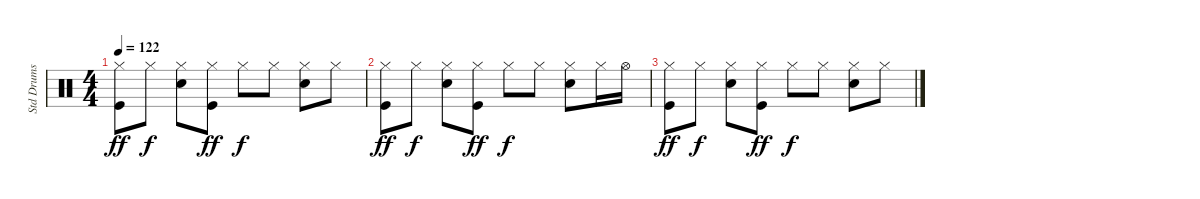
\track ("Std Drums" "Std Drums") {instrument percussion}
\staff {score}
\articulation defaults
\ts (4 4)
\tempo 122
\clef neutral
\ks c
("Hi-Hat (closed)" "Kick (hit)").8{dy ff volume 4} "Hi-Hat (closed)".8{dy f volume 4} ("Hi-Hat (closed)" "Snare (hit) 2").8{volume 4} ("Hi-Hat (closed)" "Kick (hit)").8{dy ff volume 4} "Hi-Hat (closed)".8{dy f volume 4} "Hi-Hat (closed)".8{volume 4} ("Hi-Hat (closed)" "Snare (hit) 2").8{volume 3} "Hi-Hat (closed)".8{volume 3} |
("Hi-Hat (closed)" "Kick (hit)").8{dy ff volume 3} "Hi-Hat (closed)".8{dy f volume 3} ("Hi-Hat (closed)" "Snare (hit) 2").8{volume 3} ("Hi-Hat (closed)" "Kick (hit)").8{dy ff volume 2} "Hi-Hat (closed)".8{dy f volume 2} "Hi-Hat (closed)".8{volume 2} ("Hi-Hat (closed)" "Snare (hit) 2").8{volume 2} "Hi-Hat (closed)".16{volume 2} "Hi-Hat (open)".16 |
("Hi-Hat (closed)" "Kick (hit)").8{dy ff volume 2} "Hi-Hat (closed)".8{dy f volume 1} ("Hi-Hat (closed)" "Snare (hit) 2").8{volume 1} ("Hi-Hat (closed)" "Kick (hit)").8{dy ff volume 1} "Hi-Hat (closed)".8{dy f volume 1} "Hi-Hat (closed)".8{volume 1} ("Hi-Hat (closed)" "Snare (hit) 2").8{volume 0} "Hi-Hat (closed)".8{volume 0}
